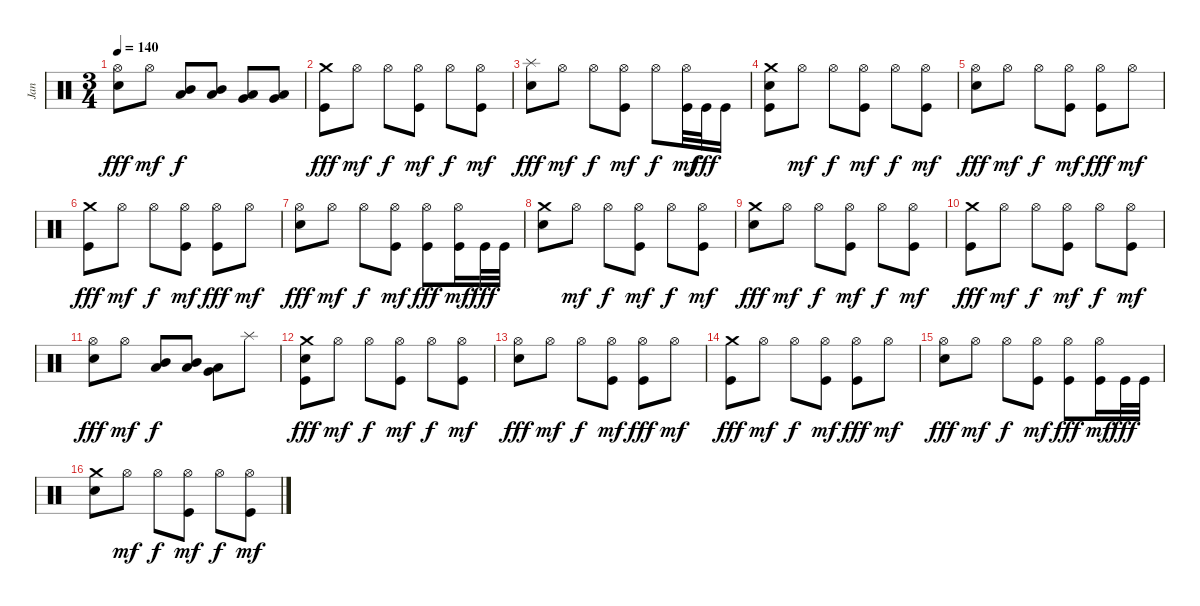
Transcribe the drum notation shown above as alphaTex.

\track ("Jan" "Jan") {instrument percussion}
\staff {score}
\articulation defaults
\ts (3 4)
\tempo 140
\clef neutral
\ks c
("Snare (hit) 2" "Hi-Hat (open)").8{dy fff} "Hi-Hat (open)".8{dy mf} ("Mid Tom (hit)" "Low Tom (hit)").8{dy f} ("Mid Tom (hit)" "Low Tom (hit)").8 ("Low Tom (hit)" "Very Low Tom (hit)").8 ("Low Tom (hit)" "Very Low Tom (hit)").8 |
("Kick (hit)" "Crash medium (hit)").8{dy fff} "Hi-Hat (open)".8{dy mf} "Hi-Hat (open)".8{dy f} ("Kick (hit)" "Hi-Hat (open)").8{dy mf} "Hi-Hat (open)".8{dy f} ("Kick (hit)" "Hi-Hat (open)").8{dy mf} |
("Snare (hit) 2" "Splash (hit)").8{dy fff} "Hi-Hat (open)".8{dy mf} "Hi-Hat (open)".8{dy f} ("Kick (hit)" "Hi-Hat (open)").8{dy mf} "Hi-Hat (open)".8{dy f} ("Kick (hit)" "Hi-Hat (open)").32{dy mf} "Kick (hit)".32{dy fff} "Kick (hit)".16 |
("Kick (hit)" "Snare (hit) 2" "Crash medium (hit)").8 "Hi-Hat (open)".8{dy mf} "Hi-Hat (open)".8{dy f} ("Kick (hit)" "Hi-Hat (open)").8{dy mf} "Hi-Hat (open)".8{dy f} ("Kick (hit)" "Hi-Hat (open)").8{dy mf} |
("Snare (hit) 2" "Hi-Hat (open)").8{dy fff} "Hi-Hat (open)".8{dy mf} "Hi-Hat (open)".8{dy f} ("Kick (hit)" "Hi-Hat (open)").8{dy mf} ("Kick (hit)" "Hi-Hat (open)").8{dy fff} "Hi-Hat (open)".8{dy mf} |
("Kick (hit)" "Crash medium (hit)").8{dy fff} "Hi-Hat (open)".8{dy mf} "Hi-Hat (open)".8{dy f} ("Kick (hit)" "Hi-Hat (open)").8{dy mf} ("Kick (hit)" "Hi-Hat (open)").8{dy fff} "Hi-Hat (open)".8{dy mf} |
("Snare (hit) 2" "Hi-Hat (open)").8{dy fff} "Hi-Hat (open)".8{dy mf} "Hi-Hat (open)".8{dy f} ("Kick (hit)" "Hi-Hat (open)").8{dy mf} ("Kick (hit)" "Hi-Hat (open)").8{dy fff} ("Kick (hit)" "Hi-Hat (open)").16{dy mf} "Kick (hit)".32{dy fff} "Kick (hit)".32 |
("Snare (hit) 2" "Crash medium (hit)").8 "Hi-Hat (open)".8{dy mf} "Hi-Hat (open)".8{dy f} ("Kick (hit)" "Hi-Hat (open)").8{dy mf} "Hi-Hat (open)".8{dy f} ("Kick (hit)" "Hi-Hat (open)").8{dy mf} |
("Snare (hit) 2" "Crash medium (hit)").8{dy fff} "Hi-Hat (open)".8{dy mf} "Hi-Hat (open)".8{dy f} ("Kick (hit)" "Hi-Hat (open)").8{dy mf} "Hi-Hat (open)".8{dy f} ("Kick (hit)" "Hi-Hat (open)").8{dy mf} |
("Kick (hit)" "Crash medium (hit)").8{dy fff} "Hi-Hat (open)".8{dy mf} "Hi-Hat (open)".8{dy f} ("Kick (hit)" "Hi-Hat (open)").8{dy mf} "Hi-Hat (open)".8{dy f} ("Kick (hit)" "Hi-Hat (open)").8{dy mf} |
("Snare (hit) 2" "Hi-Hat (open)").8{dy fff} "Hi-Hat (open)".8{dy mf} ("Mid Tom (hit)" "Low Tom (hit)").8{dy f} ("Mid Tom (hit)" "Low Tom (hit)").8 ("Low Tom (hit)" "Very Low Tom (hit)").8 "Splash (hit)".8 |
("Kick (hit)" "Snare (hit) 2" "Crash medium (hit)").8{dy fff} "Hi-Hat (open)".8{dy mf} "Hi-Hat (open)".8{dy f} ("Kick (hit)" "Hi-Hat (open)").8{dy mf} "Hi-Hat (open)".8{dy f} ("Kick (hit)" "Hi-Hat (open)").8{dy mf} |
("Snare (hit) 2" "Hi-Hat (open)").8{dy fff} "Hi-Hat (open)".8{dy mf} "Hi-Hat (open)".8{dy f} ("Kick (hit)" "Hi-Hat (open)").8{dy mf} ("Kick (hit)" "Hi-Hat (open)").8{dy fff} "Hi-Hat (open)".8{dy mf} |
("Kick (hit)" "Crash medium (hit)").8{dy fff} "Hi-Hat (open)".8{dy mf} "Hi-Hat (open)".8{dy f} ("Kick (hit)" "Hi-Hat (open)").8{dy mf} ("Kick (hit)" "Hi-Hat (open)").8{dy fff} "Hi-Hat (open)".8{dy mf} |
("Snare (hit) 2" "Hi-Hat (open)").8{dy fff} "Hi-Hat (open)".8{dy mf} "Hi-Hat (open)".8{dy f} ("Kick (hit)" "Hi-Hat (open)").8{dy mf} ("Kick (hit)" "Hi-Hat (open)").8{dy fff} ("Kick (hit)" "Hi-Hat (open)").16{dy mf} "Kick (hit)".32{dy fff} "Kick (hit)".32 |
("Snare (hit) 2" "Crash medium (hit)").8 "Hi-Hat (open)".8{dy mf} "Hi-Hat (open)".8{dy f} ("Kick (hit)" "Hi-Hat (open)").8{dy mf} "Hi-Hat (open)".8{dy f} ("Kick (hit)" "Hi-Hat (open)").8{dy mf}
